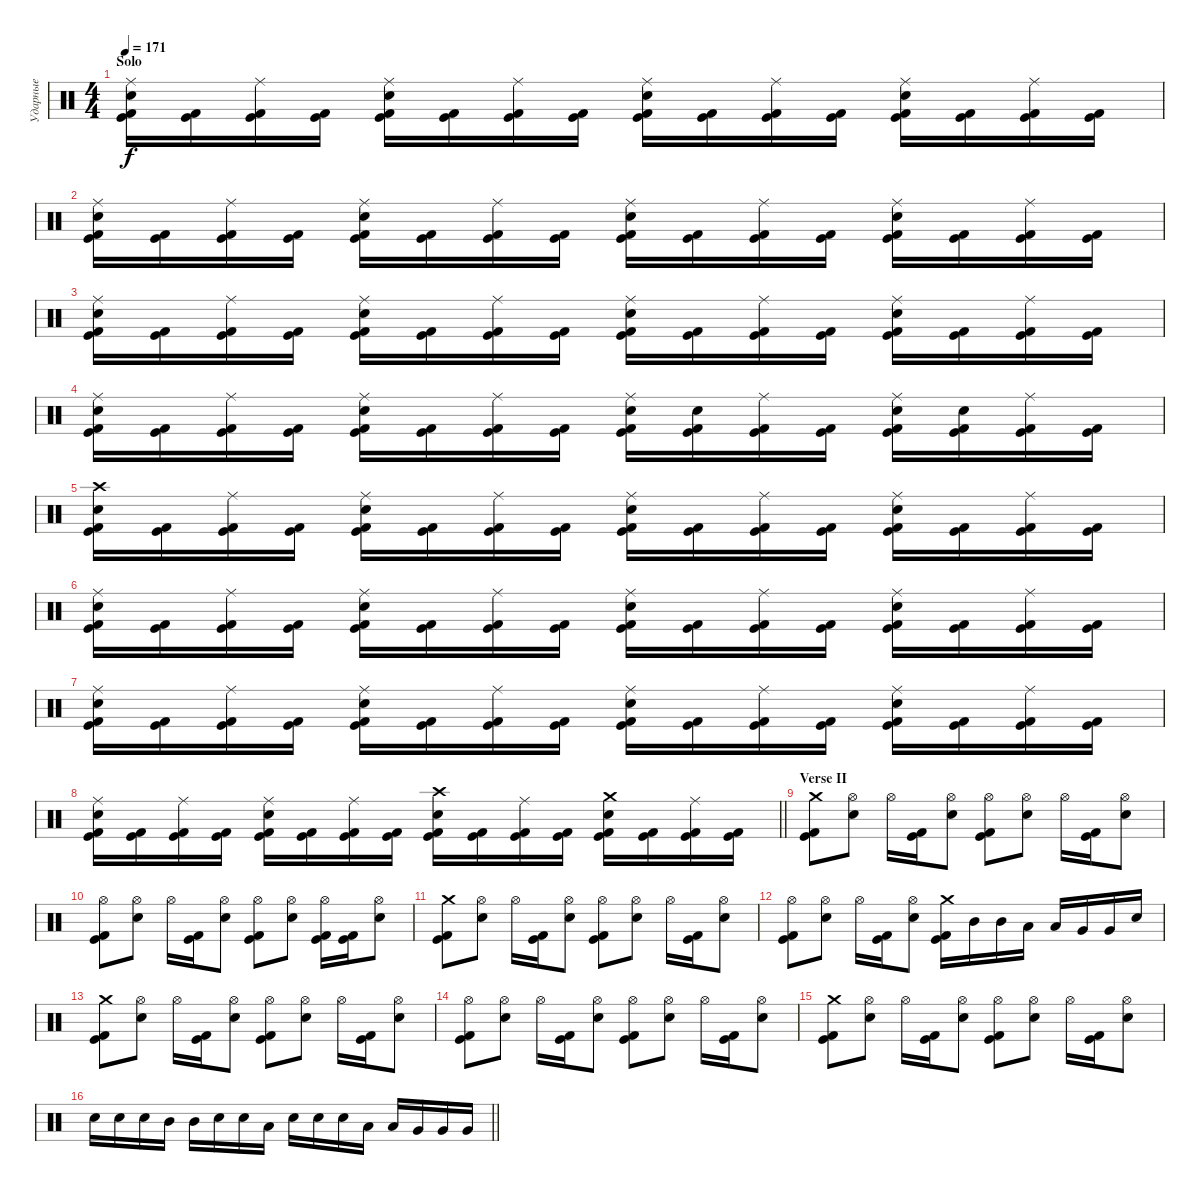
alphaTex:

\track ("Ударные" "Ударные") {instrument percussion}
\staff {score}
\articulation defaults
\ts (4 4)
\section ("" "Solo")
\tempo 171
\clef neutral
\ks c
("Ride (middle)" "Electric Snare (hit)" "Kick (hit)" "Kick (hit) 2").16{dy f} ("Kick (hit)" "Kick (hit) 2").16 ("Ride (middle)" "Kick (hit)" "Kick (hit) 2").16 ("Kick (hit)" "Kick (hit) 2").16 ("Ride (middle)" "Electric Snare (hit)" "Kick (hit)" "Kick (hit) 2").16 ("Kick (hit)" "Kick (hit) 2").16 ("Ride (middle)" "Kick (hit)" "Kick (hit) 2").16 ("Kick (hit)" "Kick (hit) 2").16 ("Ride (middle)" "Electric Snare (hit)" "Kick (hit)" "Kick (hit) 2").16 ("Kick (hit)" "Kick (hit) 2").16 ("Ride (middle)" "Kick (hit)" "Kick (hit) 2").16 ("Kick (hit)" "Kick (hit) 2").16 ("Ride (middle)" "Electric Snare (hit)" "Kick (hit)" "Kick (hit) 2").16 ("Kick (hit)" "Kick (hit) 2").16 ("Ride (middle)" "Kick (hit)" "Kick (hit) 2").16 ("Kick (hit)" "Kick (hit) 2").16 |
("Ride (middle)" "Electric Snare (hit)" "Kick (hit)" "Kick (hit) 2").16 ("Kick (hit)" "Kick (hit) 2").16 ("Ride (middle)" "Kick (hit)" "Kick (hit) 2").16 ("Kick (hit)" "Kick (hit) 2").16 ("Ride (middle)" "Electric Snare (hit)" "Kick (hit)" "Kick (hit) 2").16 ("Kick (hit)" "Kick (hit) 2").16 ("Ride (middle)" "Kick (hit)" "Kick (hit) 2").16 ("Kick (hit)" "Kick (hit) 2").16 ("Ride (middle)" "Electric Snare (hit)" "Kick (hit)" "Kick (hit) 2").16 ("Kick (hit)" "Kick (hit) 2").16 ("Ride (middle)" "Kick (hit)" "Kick (hit) 2").16 ("Kick (hit)" "Kick (hit) 2").16 ("Ride (middle)" "Electric Snare (hit)" "Kick (hit)" "Kick (hit) 2").16 ("Kick (hit)" "Kick (hit) 2").16 ("Ride (middle)" "Kick (hit)" "Kick (hit) 2").16 ("Kick (hit)" "Kick (hit) 2").16 |
("Ride (middle)" "Electric Snare (hit)" "Kick (hit)" "Kick (hit) 2").16 ("Kick (hit)" "Kick (hit) 2").16 ("Ride (middle)" "Kick (hit)" "Kick (hit) 2").16 ("Kick (hit)" "Kick (hit) 2").16 ("Ride (middle)" "Electric Snare (hit)" "Kick (hit)" "Kick (hit) 2").16 ("Kick (hit)" "Kick (hit) 2").16 ("Ride (middle)" "Kick (hit)" "Kick (hit) 2").16 ("Kick (hit)" "Kick (hit) 2").16 ("Ride (middle)" "Electric Snare (hit)" "Kick (hit)" "Kick (hit) 2").16 ("Kick (hit)" "Kick (hit) 2").16 ("Ride (middle)" "Kick (hit)" "Kick (hit) 2").16 ("Kick (hit)" "Kick (hit) 2").16 ("Ride (middle)" "Electric Snare (hit)" "Kick (hit)" "Kick (hit) 2").16 ("Kick (hit)" "Kick (hit) 2").16 ("Ride (middle)" "Kick (hit)" "Kick (hit) 2").16 ("Kick (hit)" "Kick (hit) 2").16 |
("Ride (middle)" "Electric Snare (hit)" "Kick (hit)" "Kick (hit) 2").16 ("Kick (hit)" "Kick (hit) 2").16 ("Ride (middle)" "Kick (hit)" "Kick (hit) 2").16 ("Kick (hit)" "Kick (hit) 2").16 ("Ride (middle)" "Electric Snare (hit)" "Kick (hit)" "Kick (hit) 2").16 ("Kick (hit)" "Kick (hit) 2").16 ("Ride (middle)" "Kick (hit)" "Kick (hit) 2").16 ("Kick (hit)" "Kick (hit) 2").16 ("Ride (middle)" "Electric Snare (hit)" "Kick (hit)" "Kick (hit) 2").16 ("Electric Snare (hit)" "Kick (hit)" "Kick (hit) 2").16 ("Ride (middle)" "Kick (hit)" "Kick (hit) 2").16 ("Kick (hit)" "Kick (hit) 2").16 ("Ride (middle)" "Electric Snare (hit)" "Kick (hit)" "Kick (hit) 2").16 ("Electric Snare (hit)" "Kick (hit)" "Kick (hit) 2").16 ("Ride (middle)" "Kick (hit)" "Kick (hit) 2").16 ("Kick (hit)" "Kick (hit) 2").16 |
("Crash high (hit)" "Electric Snare (hit)" "Kick (hit)" "Kick (hit) 2").16 ("Kick (hit)" "Kick (hit) 2").16 ("Ride (middle)" "Kick (hit)" "Kick (hit) 2").16 ("Kick (hit)" "Kick (hit) 2").16 ("Ride (middle)" "Electric Snare (hit)" "Kick (hit)" "Kick (hit) 2").16 ("Kick (hit)" "Kick (hit) 2").16 ("Ride (middle)" "Kick (hit)" "Kick (hit) 2").16 ("Kick (hit)" "Kick (hit) 2").16 ("Ride (middle)" "Electric Snare (hit)" "Kick (hit)" "Kick (hit) 2").16 ("Kick (hit)" "Kick (hit) 2").16 ("Ride (middle)" "Kick (hit)" "Kick (hit) 2").16 ("Kick (hit)" "Kick (hit) 2").16 ("Ride (middle)" "Electric Snare (hit)" "Kick (hit)" "Kick (hit) 2").16 ("Kick (hit)" "Kick (hit) 2").16 ("Ride (middle)" "Kick (hit)" "Kick (hit) 2").16 ("Kick (hit)" "Kick (hit) 2").16 |
("Ride (middle)" "Electric Snare (hit)" "Kick (hit)" "Kick (hit) 2").16 ("Kick (hit)" "Kick (hit) 2").16 ("Ride (middle)" "Kick (hit)" "Kick (hit) 2").16 ("Kick (hit)" "Kick (hit) 2").16 ("Ride (middle)" "Electric Snare (hit)" "Kick (hit)" "Kick (hit) 2").16 ("Kick (hit)" "Kick (hit) 2").16 ("Ride (middle)" "Kick (hit)" "Kick (hit) 2").16 ("Kick (hit)" "Kick (hit) 2").16 ("Ride (middle)" "Electric Snare (hit)" "Kick (hit)" "Kick (hit) 2").16 ("Kick (hit)" "Kick (hit) 2").16 ("Ride (middle)" "Kick (hit)" "Kick (hit) 2").16 ("Kick (hit)" "Kick (hit) 2").16 ("Ride (middle)" "Electric Snare (hit)" "Kick (hit)" "Kick (hit) 2").16 ("Kick (hit)" "Kick (hit) 2").16 ("Ride (middle)" "Kick (hit)" "Kick (hit) 2").16 ("Kick (hit)" "Kick (hit) 2").16 |
("Ride (middle)" "Electric Snare (hit)" "Kick (hit)" "Kick (hit) 2").16 ("Kick (hit)" "Kick (hit) 2").16 ("Ride (middle)" "Kick (hit)" "Kick (hit) 2").16 ("Kick (hit)" "Kick (hit) 2").16 ("Ride (middle)" "Electric Snare (hit)" "Kick (hit)" "Kick (hit) 2").16 ("Kick (hit)" "Kick (hit) 2").16 ("Ride (middle)" "Kick (hit)" "Kick (hit) 2").16 ("Kick (hit)" "Kick (hit) 2").16 ("Ride (middle)" "Electric Snare (hit)" "Kick (hit)" "Kick (hit) 2").16 ("Kick (hit)" "Kick (hit) 2").16 ("Ride (middle)" "Kick (hit)" "Kick (hit) 2").16 ("Kick (hit)" "Kick (hit) 2").16 ("Ride (middle)" "Electric Snare (hit)" "Kick (hit)" "Kick (hit) 2").16 ("Kick (hit)" "Kick (hit) 2").16 ("Ride (middle)" "Kick (hit)" "Kick (hit) 2").16 ("Kick (hit)" "Kick (hit) 2").16 |
\barLineRight lightlight
("Ride (middle)" "Electric Snare (hit)" "Kick (hit)" "Kick (hit) 2").16 ("Kick (hit)" "Kick (hit) 2").16 ("Ride (middle)" "Kick (hit)" "Kick (hit) 2").16 ("Kick (hit)" "Kick (hit) 2").16 ("Ride (middle)" "Electric Snare (hit)" "Kick (hit)" "Kick (hit) 2").16 ("Kick (hit)" "Kick (hit) 2").16 ("Ride (middle)" "Kick (hit)" "Kick (hit) 2").16 ("Kick (hit)" "Kick (hit) 2").16 ("Crash high (hit)" "Electric Snare (hit)" "Kick (hit)" "Kick (hit) 2").16 ("Kick (hit)" "Kick (hit) 2").16 ("Ride (middle)" "Kick (hit)" "Kick (hit) 2").16 ("Kick (hit)" "Kick (hit) 2").16 ("Crash medium (hit)" "Electric Snare (hit)" "Kick (hit)" "Kick (hit) 2").16 ("Kick (hit)" "Kick (hit) 2").16 ("Ride (middle)" "Kick (hit)" "Kick (hit) 2").16 ("Kick (hit)" "Kick (hit) 2").16 |
\section ("" "Verse II")
("Crash medium (hit)" "Kick (hit)" "Kick (hit) 2").8 ("Hi-Hat (open)" "Electric Snare (hit)").8 "Hi-Hat (open)".16 ("Kick (hit)" "Kick (hit) 2").16 ("Hi-Hat (open)" "Electric Snare (hit)").8 ("Hi-Hat (open)" "Kick (hit)" "Kick (hit) 2").8 ("Hi-Hat (open)" "Electric Snare (hit)").8 "Hi-Hat (open)".16 ("Kick (hit)" "Kick (hit) 2").16 ("Hi-Hat (open)" "Electric Snare (hit)").8 |
("Hi-Hat (open)" "Kick (hit)" "Kick (hit) 2").8 ("Hi-Hat (open)" "Electric Snare (hit)").8 "Hi-Hat (open)".16 ("Kick (hit)" "Kick (hit) 2").16 ("Hi-Hat (open)" "Electric Snare (hit)").8 ("Hi-Hat (open)" "Kick (hit)" "Kick (hit) 2").8 ("Hi-Hat (open)" "Electric Snare (hit)").8 ("Hi-Hat (open)" "Kick (hit)" "Kick (hit) 2").16 ("Kick (hit)" "Kick (hit) 2").16 ("Hi-Hat (open)" "Electric Snare (hit)").8 |
("Crash medium (hit)" "Kick (hit)" "Kick (hit) 2").8 ("Hi-Hat (open)" "Electric Snare (hit)").8 "Hi-Hat (open)".16 ("Kick (hit)" "Kick (hit) 2").16 ("Hi-Hat (open)" "Electric Snare (hit)").8 ("Hi-Hat (open)" "Kick (hit)" "Kick (hit) 2").8 ("Hi-Hat (open)" "Electric Snare (hit)").8 "Hi-Hat (open)".16 ("Kick (hit)" "Kick (hit) 2").16 ("Hi-Hat (open)" "Electric Snare (hit)").8 |
("Hi-Hat (open)" "Kick (hit)" "Kick (hit) 2").8 ("Hi-Hat (open)" "Electric Snare (hit)").8 "Hi-Hat (open)".16 ("Kick (hit)" "Kick (hit) 2").16 ("Hi-Hat (open)" "Electric Snare (hit)").8 ("Crash medium (hit)" "Kick (hit)" "Kick (hit) 2").16 "Mid Tom (hit)".16 "Mid Tom (hit)".16 "Low Tom (hit)".16 "Low Tom (hit)".16 "Very Low Tom (hit)".16 "Very Low Tom (hit)".16 "Electric Snare (hit)".16 |
("Crash medium (hit)" "Kick (hit)" "Kick (hit) 2").8 ("Hi-Hat (open)" "Electric Snare (hit)").8 "Hi-Hat (open)".16 ("Kick (hit)" "Kick (hit) 2").16 ("Hi-Hat (open)" "Electric Snare (hit)").8 ("Hi-Hat (open)" "Kick (hit)" "Kick (hit) 2").8 ("Hi-Hat (open)" "Electric Snare (hit)").8 "Hi-Hat (open)".16 ("Kick (hit)" "Kick (hit) 2").16 ("Hi-Hat (open)" "Electric Snare (hit)").8 |
("Hi-Hat (open)" "Kick (hit)" "Kick (hit) 2").8 ("Hi-Hat (open)" "Electric Snare (hit)").8 "Hi-Hat (open)".16 ("Kick (hit)" "Kick (hit) 2").16 ("Hi-Hat (open)" "Electric Snare (hit)").8 ("Hi-Hat (open)" "Kick (hit)" "Kick (hit) 2").8 ("Hi-Hat (open)" "Electric Snare (hit)").8 "Hi-Hat (open)".16 ("Kick (hit)" "Kick (hit) 2").16 ("Hi-Hat (open)" "Electric Snare (hit)").8 |
("Crash medium (hit)" "Kick (hit)" "Kick (hit) 2").8 ("Hi-Hat (open)" "Electric Snare (hit)").8 "Hi-Hat (open)".16 ("Kick (hit)" "Kick (hit) 2").16 ("Hi-Hat (open)" "Electric Snare (hit)").8 ("Hi-Hat (open)" "Kick (hit)" "Kick (hit) 2").8 ("Hi-Hat (open)" "Electric Snare (hit)").8 "Hi-Hat (open)".16 ("Kick (hit)" "Kick (hit) 2").16 ("Hi-Hat (open)" "Electric Snare (hit)").8 |
\barLineRight lightlight "Electric Snare (hit)".16 "Electric Snare (hit)".16 "Electric Snare (hit)".16 "Mid Tom (hit)".16 "Mid Tom (hit)".16 "Electric Snare (hit)".16 "Electric Snare (hit)".16 "Low Tom (hit)".16 "Electric Snare (hit)".16 "Electric Snare (hit)".16 "Electric Snare (hit)".16 "Low Tom (hit)".16 "Low Tom (hit)".16 "Very Low Tom (hit)".16 "Very Low Tom (hit)".16 "Very Low Tom (hit)".16
